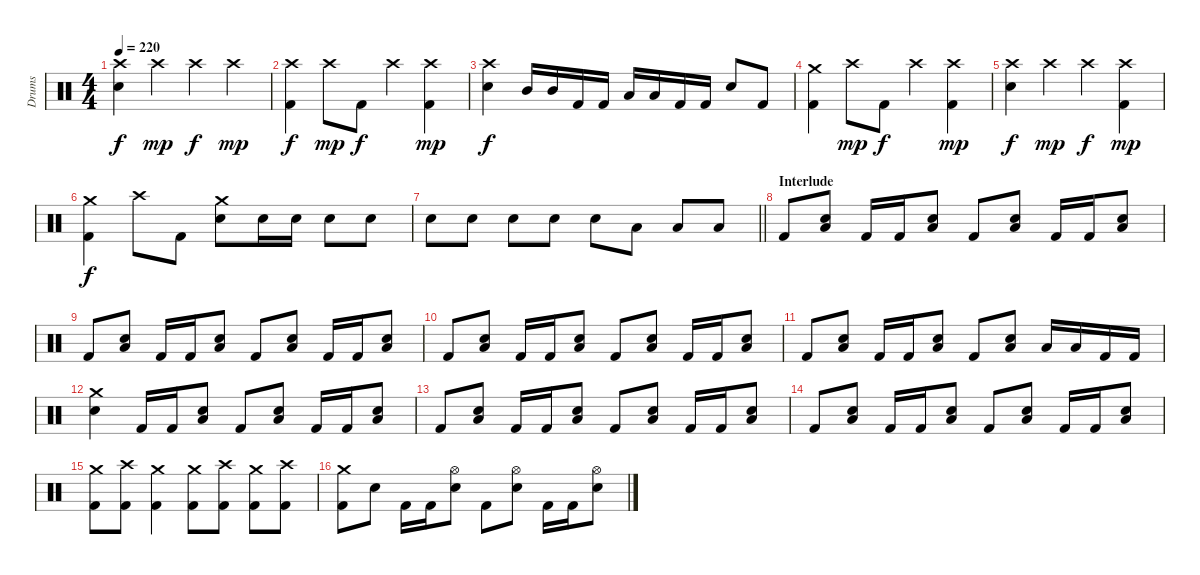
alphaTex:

\track ("Drums" "Drums") {instrument percussion}
\staff {score}
\articulation defaults
\ts (4 4)
\tempo 220
\clef neutral
\ks c
("Crash high (hit)" "Electric Snare (hit)").4{dy f} "Crash high (hit)".4{dy mp} "Crash high (hit)".4{dy f} "Crash high (hit)".4{dy mp} |
("Crash high (hit)" "Kick (hit) 2").4{dy f} "Crash high (hit)".8{dy mp} "Kick (hit) 2".8{dy f} "Crash high (hit)".4 ("Crash high (hit)" "Kick (hit) 2").4{dy mp} |
("Crash high (hit)" "Electric Snare (hit)").4{dy f} "Mid Tom (hit)".16 "Mid Tom (hit)".16 "Kick (hit) 2".16 "Kick (hit) 2".16 "Low Tom (hit)".16 "Low Tom (hit)".16 "Kick (hit) 2".16 "Kick (hit) 2".16 "Electric Snare (hit)".8 "Kick (hit) 2".8 |
("Crash medium (hit)" "Kick (hit) 2").4 "Crash high (hit)".8{dy mp} "Kick (hit) 2".8{dy f} "Crash high (hit)".4 ("Crash high (hit)" "Kick (hit) 2").4{dy mp} |
("Crash high (hit)" "Electric Snare (hit)").4{dy f} "Crash high (hit)".4{dy mp} "Crash high (hit)".4{dy f} ("Crash high (hit)" "Kick (hit) 2").4{dy mp} |
("Kick (hit) 2" "Crash medium (hit)").4{dy f} "Crash high (hit)".8 "Kick (hit) 2".8 ("Electric Snare (hit)" "Crash medium (hit)").8 "Electric Snare (hit)".16 "Electric Snare (hit)".16 "Electric Snare (hit)".8 "Electric Snare (hit)".8 |
\barLineRight lightlight "Electric Snare (hit)".8 "Electric Snare (hit)".8 "Electric Snare (hit)".8 "Electric Snare (hit)".8 "Electric Snare (hit)".8 "Low Tom (hit)".8 "Low Tom (hit)".8 "Low Tom (hit)".8
|
\section ("" "Interlude")
"Kick (hit) 2".8 ("Electric Snare (hit)" "Low Floor Tom (hit)").8 "Kick (hit) 2".16 "Kick (hit) 2".16 ("Electric Snare (hit)" "Low Floor Tom (hit)").8 "Kick (hit) 2".8 ("Electric Snare (hit)" "Low Floor Tom (hit)").8 "Kick (hit) 2".16 "Kick (hit) 2".16 ("Electric Snare (hit)" "Low Floor Tom (hit)").8 |
"Kick (hit) 2".8 ("Electric Snare (hit)" "Low Floor Tom (hit)").8 "Kick (hit) 2".16 "Kick (hit) 2".16 ("Electric Snare (hit)" "Low Floor Tom (hit)").8 "Kick (hit) 2".8 ("Electric Snare (hit)" "Low Floor Tom (hit)").8 "Kick (hit) 2".16 "Kick (hit) 2".16 ("Electric Snare (hit)" "Low Floor Tom (hit)").8 |
"Kick (hit) 2".8 ("Electric Snare (hit)" "Low Floor Tom (hit)").8 "Kick (hit) 2".16 "Kick (hit) 2".16 ("Electric Snare (hit)" "Low Floor Tom (hit)").8 "Kick (hit) 2".8 ("Electric Snare (hit)" "Low Floor Tom (hit)").8 "Kick (hit) 2".16 "Kick (hit) 2".16 ("Electric Snare (hit)" "Low Floor Tom (hit)").8 |
"Kick (hit) 2".8 ("Electric Snare (hit)" "Low Floor Tom (hit)").8 "Kick (hit) 2".16 "Kick (hit) 2".16 ("Electric Snare (hit)" "Low Floor Tom (hit)").8 "Kick (hit) 2".8 ("Electric Snare (hit)" "Low Floor Tom (hit)").8 "Low Tom (hit)".16 "Low Tom (hit)".16 "Kick (hit) 2".16 "Kick (hit) 2".16 |
("Crash medium (hit)" "Electric Snare (hit)").4 "Kick (hit) 2".16 "Kick (hit) 2".16 ("Electric Snare (hit)" "Low Floor Tom (hit)").8 "Kick (hit) 2".8 ("Electric Snare (hit)" "Low Floor Tom (hit)").8 "Kick (hit) 2".16 "Kick (hit) 2".16 ("Electric Snare (hit)" "Low Floor Tom (hit)").8 |
"Kick (hit) 2".8 ("Electric Snare (hit)" "Low Floor Tom (hit)").8 "Kick (hit) 2".16 "Kick (hit) 2".16 ("Electric Snare (hit)" "Low Floor Tom (hit)").8 "Kick (hit) 2".8 ("Electric Snare (hit)" "Low Floor Tom (hit)").8 "Kick (hit) 2".16 "Kick (hit) 2".16 ("Electric Snare (hit)" "Low Floor Tom (hit)").8 |
"Kick (hit) 2".8 ("Electric Snare (hit)" "Low Floor Tom (hit)").8 "Kick (hit) 2".16 "Kick (hit) 2".16 ("Electric Snare (hit)" "Low Floor Tom (hit)").8 "Kick (hit) 2".8 ("Electric Snare (hit)" "Low Floor Tom (hit)").8 "Kick (hit) 2".16 "Kick (hit) 2".16 ("Electric Snare (hit)" "Low Floor Tom (hit)").8 |
("Crash medium (hit)" "Kick (hit) 2").8 ("Crash high (hit)" "Kick (hit) 2").8 ("Crash medium (hit)" "Kick (hit) 2").4 ("Crash medium (hit)" "Kick (hit) 2").8 ("Crash high (hit)" "Kick (hit) 2").8 ("Crash medium (hit)" "Kick (hit) 2").8 ("Crash high (hit)" "Kick (hit) 2").8 |
("Kick (hit) 2" "Crash medium (hit)").8 "Electric Snare (hit)".8 "Kick (hit) 2".16 "Kick (hit) 2".16 ("Electric Snare (hit)" "Hi-Hat (open)").8 "Kick (hit) 2".8 ("Electric Snare (hit)" "Hi-Hat (open)").8 "Kick (hit) 2".16 "Kick (hit) 2".16 ("Electric Snare (hit)" "Hi-Hat (open)").8
